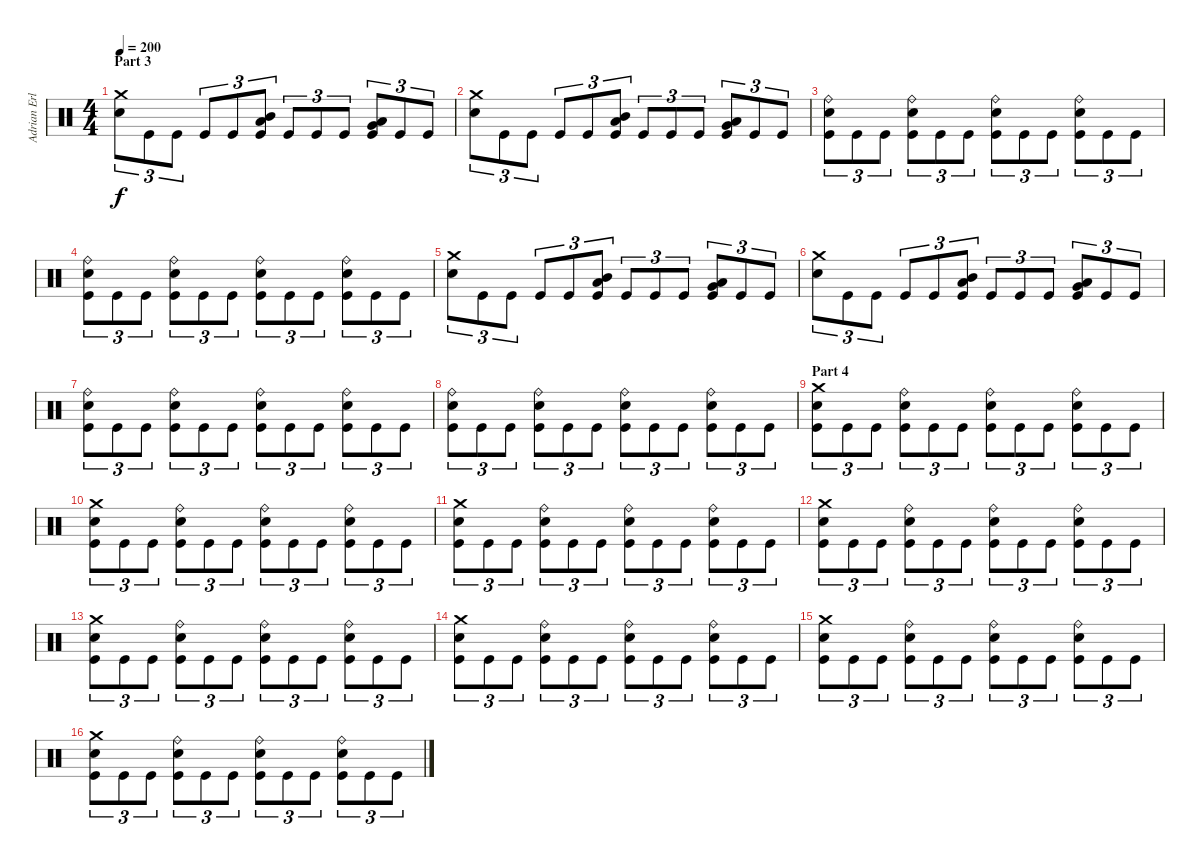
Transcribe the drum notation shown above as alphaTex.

\track ("Adrian Erlandsson" "Adrian Erl") {instrument percussion}
\staff {score}
\articulation defaults
\ts (4 4)
\section ("" "Part 3")
\tempo 200
\clef neutral
\ks c
("Crash medium (hit)" "Electric Snare (hit)").8{tu (3 2) dy f} "Kick (hit)".8{tu (3 2)} "Kick (hit)".8{tu (3 2)} "Kick (hit)".8{tu (3 2)} "Kick (hit)".8{tu (3 2)} ("Mid Tom (hit)" "Low Tom (hit)" "Kick (hit)").8{tu (3 2)} "Kick (hit)".8{tu (3 2)} "Kick (hit)".8{tu (3 2)} "Kick (hit)".8{tu (3 2)} ("Low Tom (hit)" "Very Low Tom (hit)" "Kick (hit)").8{tu (3 2)} "Kick (hit)".8{tu (3 2)} "Kick (hit)".8{tu (3 2)} |
("Crash medium (hit)" "Electric Snare (hit)").8{tu (3 2)} "Kick (hit)".8{tu (3 2)} "Kick (hit)".8{tu (3 2)} "Kick (hit)".8{tu (3 2)} "Kick (hit)".8{tu (3 2)} ("Mid Tom (hit)" "Low Tom (hit)" "Kick (hit)").8{tu (3 2)} "Kick (hit)".8{tu (3 2)} "Kick (hit)".8{tu (3 2)} "Kick (hit)".8{tu (3 2)} ("Low Tom (hit)" "Very Low Tom (hit)" "Kick (hit)").8{tu (3 2)} "Kick (hit)".8{tu (3 2)} "Kick (hit)".8{tu (3 2)} |
("Ride (bell)" "Electric Snare (hit)" "Kick (hit)").8{tu (3 2)} "Kick (hit)".8{tu (3 2)} "Kick (hit)".8{tu (3 2)} ("Ride (bell)" "Electric Snare (hit)" "Kick (hit)").8{tu (3 2)} "Kick (hit)".8{tu (3 2)} "Kick (hit)".8{tu (3 2)} ("Ride (bell)" "Electric Snare (hit)" "Kick (hit)").8{tu (3 2)} "Kick (hit)".8{tu (3 2)} "Kick (hit)".8{tu (3 2)} ("Ride (bell)" "Electric Snare (hit)" "Kick (hit)").8{tu (3 2)} "Kick (hit)".8{tu (3 2)} "Kick (hit)".8{tu (3 2)} |
("Ride (bell)" "Electric Snare (hit)" "Kick (hit)").8{tu (3 2)} "Kick (hit)".8{tu (3 2)} "Kick (hit)".8{tu (3 2)} ("Ride (bell)" "Electric Snare (hit)" "Kick (hit)").8{tu (3 2)} "Kick (hit)".8{tu (3 2)} "Kick (hit)".8{tu (3 2)} ("Ride (bell)" "Electric Snare (hit)" "Kick (hit)").8{tu (3 2)} "Kick (hit)".8{tu (3 2)} "Kick (hit)".8{tu (3 2)} ("Ride (bell)" "Electric Snare (hit)" "Kick (hit)").8{tu (3 2)} "Kick (hit)".8{tu (3 2)} "Kick (hit)".8{tu (3 2)} |
("Crash medium (hit)" "Electric Snare (hit)").8{tu (3 2)} "Kick (hit)".8{tu (3 2)} "Kick (hit)".8{tu (3 2)} "Kick (hit)".8{tu (3 2)} "Kick (hit)".8{tu (3 2)} ("Mid Tom (hit)" "Low Tom (hit)" "Kick (hit)").8{tu (3 2)} "Kick (hit)".8{tu (3 2)} "Kick (hit)".8{tu (3 2)} "Kick (hit)".8{tu (3 2)} ("Low Tom (hit)" "Very Low Tom (hit)" "Kick (hit)").8{tu (3 2)} "Kick (hit)".8{tu (3 2)} "Kick (hit)".8{tu (3 2)} |
("Crash medium (hit)" "Electric Snare (hit)").8{tu (3 2)} "Kick (hit)".8{tu (3 2)} "Kick (hit)".8{tu (3 2)} "Kick (hit)".8{tu (3 2)} "Kick (hit)".8{tu (3 2)} ("Mid Tom (hit)" "Low Tom (hit)" "Kick (hit)").8{tu (3 2)} "Kick (hit)".8{tu (3 2)} "Kick (hit)".8{tu (3 2)} "Kick (hit)".8{tu (3 2)} ("Low Tom (hit)" "Very Low Tom (hit)" "Kick (hit)").8{tu (3 2)} "Kick (hit)".8{tu (3 2)} "Kick (hit)".8{tu (3 2)} |
("Ride (bell)" "Electric Snare (hit)" "Kick (hit)").8{tu (3 2)} "Kick (hit)".8{tu (3 2)} "Kick (hit)".8{tu (3 2)} ("Ride (bell)" "Electric Snare (hit)" "Kick (hit)").8{tu (3 2)} "Kick (hit)".8{tu (3 2)} "Kick (hit)".8{tu (3 2)} ("Ride (bell)" "Electric Snare (hit)" "Kick (hit)").8{tu (3 2)} "Kick (hit)".8{tu (3 2)} "Kick (hit)".8{tu (3 2)} ("Ride (bell)" "Electric Snare (hit)" "Kick (hit)").8{tu (3 2)} "Kick (hit)".8{tu (3 2)} "Kick (hit)".8{tu (3 2)} |
("Ride (bell)" "Electric Snare (hit)" "Kick (hit)").8{tu (3 2)} "Kick (hit)".8{tu (3 2)} "Kick (hit)".8{tu (3 2)} ("Ride (bell)" "Electric Snare (hit)" "Kick (hit)").8{tu (3 2)} "Kick (hit)".8{tu (3 2)} "Kick (hit)".8{tu (3 2)} ("Ride (bell)" "Electric Snare (hit)" "Kick (hit)").8{tu (3 2)} "Kick (hit)".8{tu (3 2)} "Kick (hit)".8{tu (3 2)} ("Ride (bell)" "Electric Snare (hit)" "Kick (hit)").8{tu (3 2)} "Kick (hit)".8{tu (3 2)} "Kick (hit)".8{tu (3 2)} |
\section ("" "Part 4")
("Crash medium (hit)" "Electric Snare (hit)" "Kick (hit)").8{tu (3 2)} "Kick (hit)".8{tu (3 2)} "Kick (hit)".8{tu (3 2)} ("Ride (bell)" "Electric Snare (hit)" "Kick (hit)").8{tu (3 2)} "Kick (hit)".8{tu (3 2)} "Kick (hit)".8{tu (3 2)} ("Ride (bell)" "Electric Snare (hit)" "Kick (hit)").8{tu (3 2)} "Kick (hit)".8{tu (3 2)} "Kick (hit)".8{tu (3 2)} ("Ride (bell)" "Electric Snare (hit)" "Kick (hit)").8{tu (3 2)} "Kick (hit)".8{tu (3 2)} "Kick (hit)".8{tu (3 2)} |
("Crash medium (hit)" "Electric Snare (hit)" "Kick (hit)").8{tu (3 2)} "Kick (hit)".8{tu (3 2)} "Kick (hit)".8{tu (3 2)} ("Ride (bell)" "Electric Snare (hit)" "Kick (hit)").8{tu (3 2)} "Kick (hit)".8{tu (3 2)} "Kick (hit)".8{tu (3 2)} ("Ride (bell)" "Electric Snare (hit)" "Kick (hit)").8{tu (3 2)} "Kick (hit)".8{tu (3 2)} "Kick (hit)".8{tu (3 2)} ("Ride (bell)" "Electric Snare (hit)" "Kick (hit)").8{tu (3 2)} "Kick (hit)".8{tu (3 2)} "Kick (hit)".8{tu (3 2)} |
("Crash medium (hit)" "Electric Snare (hit)" "Kick (hit)").8{tu (3 2)} "Kick (hit)".8{tu (3 2)} "Kick (hit)".8{tu (3 2)} ("Ride (bell)" "Electric Snare (hit)" "Kick (hit)").8{tu (3 2)} "Kick (hit)".8{tu (3 2)} "Kick (hit)".8{tu (3 2)} ("Ride (bell)" "Electric Snare (hit)" "Kick (hit)").8{tu (3 2)} "Kick (hit)".8{tu (3 2)} "Kick (hit)".8{tu (3 2)} ("Ride (bell)" "Electric Snare (hit)" "Kick (hit)").8{tu (3 2)} "Kick (hit)".8{tu (3 2)} "Kick (hit)".8{tu (3 2)} |
("Crash medium (hit)" "Electric Snare (hit)" "Kick (hit)").8{tu (3 2)} "Kick (hit)".8{tu (3 2)} "Kick (hit)".8{tu (3 2)} ("Ride (bell)" "Electric Snare (hit)" "Kick (hit)").8{tu (3 2)} "Kick (hit)".8{tu (3 2)} "Kick (hit)".8{tu (3 2)} ("Ride (bell)" "Electric Snare (hit)" "Kick (hit)").8{tu (3 2)} "Kick (hit)".8{tu (3 2)} "Kick (hit)".8{tu (3 2)} ("Ride (bell)" "Electric Snare (hit)" "Kick (hit)").8{tu (3 2)} "Kick (hit)".8{tu (3 2)} "Kick (hit)".8{tu (3 2)} |
("Crash medium (hit)" "Electric Snare (hit)" "Kick (hit)").8{tu (3 2)} "Kick (hit)".8{tu (3 2)} "Kick (hit)".8{tu (3 2)} ("Ride (bell)" "Electric Snare (hit)" "Kick (hit)").8{tu (3 2)} "Kick (hit)".8{tu (3 2)} "Kick (hit)".8{tu (3 2)} ("Ride (bell)" "Electric Snare (hit)" "Kick (hit)").8{tu (3 2)} "Kick (hit)".8{tu (3 2)} "Kick (hit)".8{tu (3 2)} ("Ride (bell)" "Electric Snare (hit)" "Kick (hit)").8{tu (3 2)} "Kick (hit)".8{tu (3 2)} "Kick (hit)".8{tu (3 2)} |
("Crash medium (hit)" "Electric Snare (hit)" "Kick (hit)").8{tu (3 2)} "Kick (hit)".8{tu (3 2)} "Kick (hit)".8{tu (3 2)} ("Ride (bell)" "Electric Snare (hit)" "Kick (hit)").8{tu (3 2)} "Kick (hit)".8{tu (3 2)} "Kick (hit)".8{tu (3 2)} ("Ride (bell)" "Electric Snare (hit)" "Kick (hit)").8{tu (3 2)} "Kick (hit)".8{tu (3 2)} "Kick (hit)".8{tu (3 2)} ("Ride (bell)" "Electric Snare (hit)" "Kick (hit)").8{tu (3 2)} "Kick (hit)".8{tu (3 2)} "Kick (hit)".8{tu (3 2)} |
("Crash medium (hit)" "Electric Snare (hit)" "Kick (hit)").8{tu (3 2)} "Kick (hit)".8{tu (3 2)} "Kick (hit)".8{tu (3 2)} ("Ride (bell)" "Electric Snare (hit)" "Kick (hit)").8{tu (3 2)} "Kick (hit)".8{tu (3 2)} "Kick (hit)".8{tu (3 2)} ("Ride (bell)" "Electric Snare (hit)" "Kick (hit)").8{tu (3 2)} "Kick (hit)".8{tu (3 2)} "Kick (hit)".8{tu (3 2)} ("Ride (bell)" "Electric Snare (hit)" "Kick (hit)").8{tu (3 2)} "Kick (hit)".8{tu (3 2)} "Kick (hit)".8{tu (3 2)} |
("Crash medium (hit)" "Electric Snare (hit)" "Kick (hit)").8{tu (3 2)} "Kick (hit)".8{tu (3 2)} "Kick (hit)".8{tu (3 2)} ("Ride (bell)" "Electric Snare (hit)" "Kick (hit)").8{tu (3 2)} "Kick (hit)".8{tu (3 2)} "Kick (hit)".8{tu (3 2)} ("Ride (bell)" "Electric Snare (hit)" "Kick (hit)").8{tu (3 2)} "Kick (hit)".8{tu (3 2)} "Kick (hit)".8{tu (3 2)} ("Ride (bell)" "Electric Snare (hit)" "Kick (hit)").8{tu (3 2)} "Kick (hit)".8{tu (3 2)} "Kick (hit)".8{tu (3 2)}
